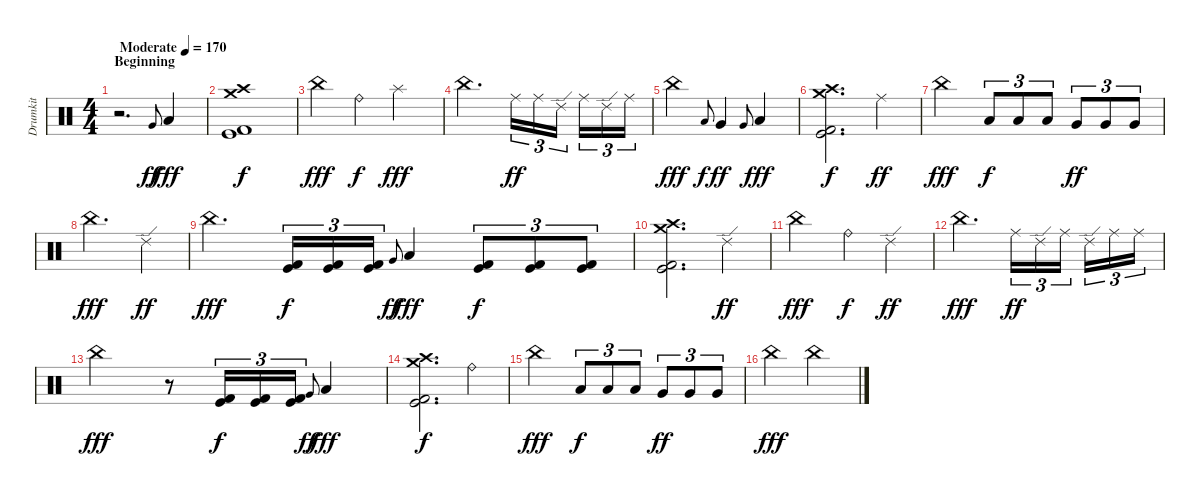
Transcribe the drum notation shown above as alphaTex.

\track ("Drumkit" "Drumkit") {instrument percussion}
\staff {score}
\articulation defaults
\ts (4 4)
\section ("" "Beginning")
\tempo (170 "Moderate")
\clef neutral
\ks c
r.2{d dy ff} "Very Low Tom (hit)".8{gr onbeat} "Low Floor Tom (hit)".4{dy fff} |
("Crash high (hit)" "Crash medium (hit)" "Kick (hit)" "Kick (hit) 2").1{dy f} |
"China (hit)".4{dy fff} "Ride (bell)".4{dy f} "Splash (hit)".2{dy fff} |
"China (hit)".2{d} "Ride (middle)".16{tu (3 2) dy ff} "Ride (middle)".16{tu (3 2)} "Ride (edge) 2".16{tu (3 2) beam splitsecondary} "Ride (middle)".16{tu (3 2)} "Ride (edge) 2".16{tu (3 2)} "Ride (middle)".16{tu (3 2)} |
"China (hit)".2{dy fff} "Low Tom (hit)".8{gr onbeat dy f} "Very Low Tom (hit)".4{dy ff} "Very Low Tom (hit)".8{gr onbeat} "Low Floor Tom (hit)".4{dy fff} |
("Crash high (hit)" "Crash medium (hit)" "Kick (hit)" "Kick (hit) 2").2{d dy f} "Ride (middle)".4{dy ff} |
"China (hit)".2{dy fff} "Low Tom (hit)".8{tu (3 2) dy f} "Low Tom (hit)".8{tu (3 2)} "Low Tom (hit)".8{tu (3 2)} "Very Low Tom (hit)".8{tu (3 2) dy ff} "Very Low Tom (hit)".8{tu (3 2)} "Very Low Tom (hit)".8{tu (3 2)} |
"China (hit)".2{d dy fff} "Ride (edge) 2".4{dy ff} |
"China (hit)".4{d dy fff} ("Kick (hit)" "Kick (hit) 2").16{tu (3 2) dy f} ("Kick (hit)" "Kick (hit) 2").16{tu (3 2)} ("Kick (hit)" "Kick (hit) 2").16{tu (3 2)} "Very Low Tom (hit)".8{gr onbeat dy ff} "Low Floor Tom (hit)".4{dy fff} ("Kick (hit)" "Kick (hit) 2").8{tu (3 2) dy f} ("Kick (hit)" "Kick (hit) 2").8{tu (3 2)} ("Kick (hit)" "Kick (hit) 2").8{tu (3 2)} |
("Crash high (hit)" "Crash medium (hit)" "Kick (hit)" "Kick (hit) 2").2{d} "Ride (edge) 2".4{dy ff} |
"China (hit)".2{dy fff} "Ride (bell)".4{dy f} "Ride (edge) 2".4{dy ff} |
"China (hit)".2{d dy fff} "Ride (middle)".16{tu (3 2) dy ff} "Ride (edge) 2".16{tu (3 2)} "Ride (middle)".16{tu (3 2) beam splitsecondary} "Ride (edge) 2".16{tu (3 2)} "Ride (middle)".16{tu (3 2)} "Ride (middle)".16{tu (3 2)} |
"China (hit)".2{dy fff} r.8 ("Kick (hit)" "Kick (hit) 2").16{tu (3 2) dy f} ("Kick (hit)" "Kick (hit) 2").16{tu (3 2)} ("Kick (hit)" "Kick (hit) 2").16{tu (3 2)} "Very Low Tom (hit)".8{gr onbeat dy ff} "Low Floor Tom (hit)".4{dy fff} |
("Crash high (hit)" "Crash medium (hit)" "Kick (hit)" "Kick (hit) 2").2{d dy f} "Ride (bell)".4 |
"China (hit)".2{dy fff} "Low Tom (hit)".8{tu (3 2) dy f} "Low Tom (hit)".8{tu (3 2)} "Low Tom (hit)".8{tu (3 2)} "Very Low Tom (hit)".8{tu (3 2) dy ff} "Very Low Tom (hit)".8{tu (3 2)} "Very Low Tom (hit)".8{tu (3 2)} |
"China (hit)".2{dy fff} "China (hit)".2
